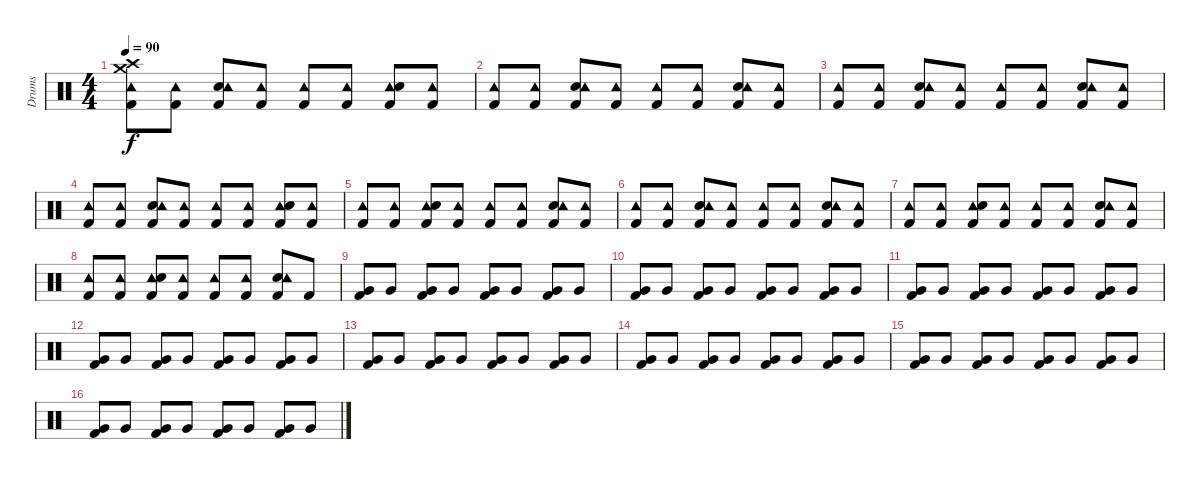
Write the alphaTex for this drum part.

\track ("Drums" "Drums") {instrument percussion}
\staff {score}
\articulation defaults
\ts (4 4)
\tempo 90
\clef neutral
\ks c
("Crash high (hit)" "Crash medium (hit)" "Kick (hit) 2" "Tambourine (hit)").8{dy f} ("Kick (hit) 2" "Tambourine (hit)").8 ("Snare (hit) 2" "Kick (hit) 2" "Tambourine (hit)").8 ("Tambourine (hit)" "Kick (hit) 2").8 ("Kick (hit) 2" "Tambourine (hit)").8 ("Kick (hit) 2" "Tambourine (hit)").8 ("Kick (hit) 2" "Tambourine (hit)" "Snare (hit) 2").8 ("Tambourine (hit)" "Kick (hit) 2").8 |
("Tambourine (hit)" "Kick (hit) 2").8 ("Kick (hit) 2" "Tambourine (hit)").8 ("Kick (hit) 2" "Snare (hit) 2" "Tambourine (hit)").8 ("Tambourine (hit)" "Kick (hit) 2").8 ("Kick (hit) 2" "Tambourine (hit)").8 ("Kick (hit) 2" "Tambourine (hit)").8 ("Kick (hit) 2" "Snare (hit) 2" "Tambourine (hit)").8 ("Kick (hit) 2" "Tambourine (hit)").8 |
("Kick (hit) 2" "Tambourine (hit)").8 ("Kick (hit) 2" "Tambourine (hit)").8 ("Kick (hit) 2" "Snare (hit) 2" "Tambourine (hit)").8 ("Tambourine (hit)" "Kick (hit) 2").8 ("Tambourine (hit)" "Kick (hit) 2").8 ("Kick (hit) 2" "Tambourine (hit)").8 ("Kick (hit) 2" "Snare (hit) 2" "Tambourine (hit)").8 ("Kick (hit) 2" "Tambourine (hit)").8 |
("Tambourine (hit)" "Kick (hit) 2").8 ("Kick (hit) 2" "Tambourine (hit)").8 ("Kick (hit) 2" "Snare (hit) 2" "Tambourine (hit)").8 ("Tambourine (hit)" "Kick (hit) 2").8 ("Tambourine (hit)" "Kick (hit) 2").8 ("Kick (hit) 2" "Tambourine (hit)").8 ("Kick (hit) 2" "Tambourine (hit)" "Snare (hit) 2").8 ("Tambourine (hit)" "Kick (hit) 2").8 |
("Tambourine (hit)" "Kick (hit) 2").8 ("Tambourine (hit)" "Kick (hit) 2").8 ("Tambourine (hit)" "Kick (hit) 2" "Snare (hit) 2").8 ("Tambourine (hit)" "Kick (hit) 2").8 ("Kick (hit) 2" "Tambourine (hit)").8 ("Kick (hit) 2" "Tambourine (hit)").8 ("Snare (hit) 2" "Tambourine (hit)" "Kick (hit) 2").8 ("Tambourine (hit)" "Kick (hit) 2").8 |
("Tambourine (hit)" "Kick (hit) 2").8 ("Tambourine (hit)" "Kick (hit) 2").8 ("Kick (hit) 2" "Snare (hit) 2" "Tambourine (hit)").8 ("Tambourine (hit)" "Kick (hit) 2").8 ("Tambourine (hit)" "Kick (hit) 2").8 ("Kick (hit) 2" "Tambourine (hit)").8 ("Kick (hit) 2" "Snare (hit) 2" "Tambourine (hit)").8 ("Tambourine (hit)" "Kick (hit) 2").8 |
("Tambourine (hit)" "Kick (hit) 2").8 ("Kick (hit) 2" "Tambourine (hit)").8 ("Kick (hit) 2" "Tambourine (hit)" "Snare (hit) 2").8 ("Tambourine (hit)" "Kick (hit) 2").8 ("Tambourine (hit)" "Kick (hit) 2").8 ("Kick (hit) 2" "Tambourine (hit)").8 ("Kick (hit) 2" "Snare (hit) 2" "Tambourine (hit)").8 ("Tambourine (hit)" "Kick (hit) 2").8 |
("Kick (hit) 2" "Tambourine (hit)").8 ("Kick (hit) 2" "Tambourine (hit)").8 ("Tambourine (hit)" "Kick (hit) 2" "Snare (hit) 2").8 ("Tambourine (hit)" "Kick (hit) 2").8 ("Kick (hit) 2" "Tambourine (hit)").8 ("Kick (hit) 2" "Tambourine (hit)").8 ("Kick (hit) 2" "Snare (hit) 2" "Tambourine (hit)").8 "Kick (hit) 2".8 |
("Kick (hit) 2" "Very Low Tom (hit)").8 "Very Low Tom (hit)".8 ("Kick (hit) 2" "Very Low Tom (hit)").8 "Very Low Tom (hit)".8 ("Kick (hit) 2" "Very Low Tom (hit)").8 "Very Low Tom (hit)".8 ("Very Low Tom (hit)" "Kick (hit) 2").8 "Very Low Tom (hit)".8 |
("Kick (hit) 2" "Very Low Tom (hit)").8 "Very Low Tom (hit)".8 ("Kick (hit) 2" "Very Low Tom (hit)").8 "Very Low Tom (hit)".8 ("Kick (hit) 2" "Very Low Tom (hit)").8 "Very Low Tom (hit)".8 ("Kick (hit) 2" "Very Low Tom (hit)").8 "Very Low Tom (hit)".8 |
("Kick (hit) 2" "Very Low Tom (hit)").8 "Very Low Tom (hit)".8 ("Kick (hit) 2" "Very Low Tom (hit)").8 "Very Low Tom (hit)".8 ("Kick (hit) 2" "Very Low Tom (hit)").8 "Very Low Tom (hit)".8 ("Very Low Tom (hit)" "Kick (hit) 2").8 "Very Low Tom (hit)".8 |
("Kick (hit) 2" "Very Low Tom (hit)").8 "Very Low Tom (hit)".8 ("Kick (hit) 2" "Very Low Tom (hit)").8 "Very Low Tom (hit)".8 ("Kick (hit) 2" "Very Low Tom (hit)").8 "Very Low Tom (hit)".8 ("Kick (hit) 2" "Very Low Tom (hit)").8 "Very Low Tom (hit)".8 |
("Kick (hit) 2" "Very Low Tom (hit)").8 "Very Low Tom (hit)".8 ("Kick (hit) 2" "Very Low Tom (hit)").8 "Very Low Tom (hit)".8 ("Kick (hit) 2" "Very Low Tom (hit)").8 "Very Low Tom (hit)".8 ("Very Low Tom (hit)" "Kick (hit) 2").8 "Very Low Tom (hit)".8 |
("Kick (hit) 2" "Very Low Tom (hit)").8 "Very Low Tom (hit)".8 ("Kick (hit) 2" "Very Low Tom (hit)").8 "Very Low Tom (hit)".8 ("Kick (hit) 2" "Very Low Tom (hit)").8 "Very Low Tom (hit)".8 ("Kick (hit) 2" "Very Low Tom (hit)").8 "Very Low Tom (hit)".8 |
("Kick (hit) 2" "Very Low Tom (hit)").8 "Very Low Tom (hit)".8 ("Kick (hit) 2" "Very Low Tom (hit)").8 "Very Low Tom (hit)".8 ("Kick (hit) 2" "Very Low Tom (hit)").8 "Very Low Tom (hit)".8 ("Very Low Tom (hit)" "Kick (hit) 2").8 "Very Low Tom (hit)".8 |
("Kick (hit) 2" "Very Low Tom (hit)").8 "Very Low Tom (hit)".8 ("Kick (hit) 2" "Very Low Tom (hit)").8 "Very Low Tom (hit)".8 ("Kick (hit) 2" "Very Low Tom (hit)").8 "Very Low Tom (hit)".8 ("Kick (hit) 2" "Very Low Tom (hit)").8 "Very Low Tom (hit)".8
